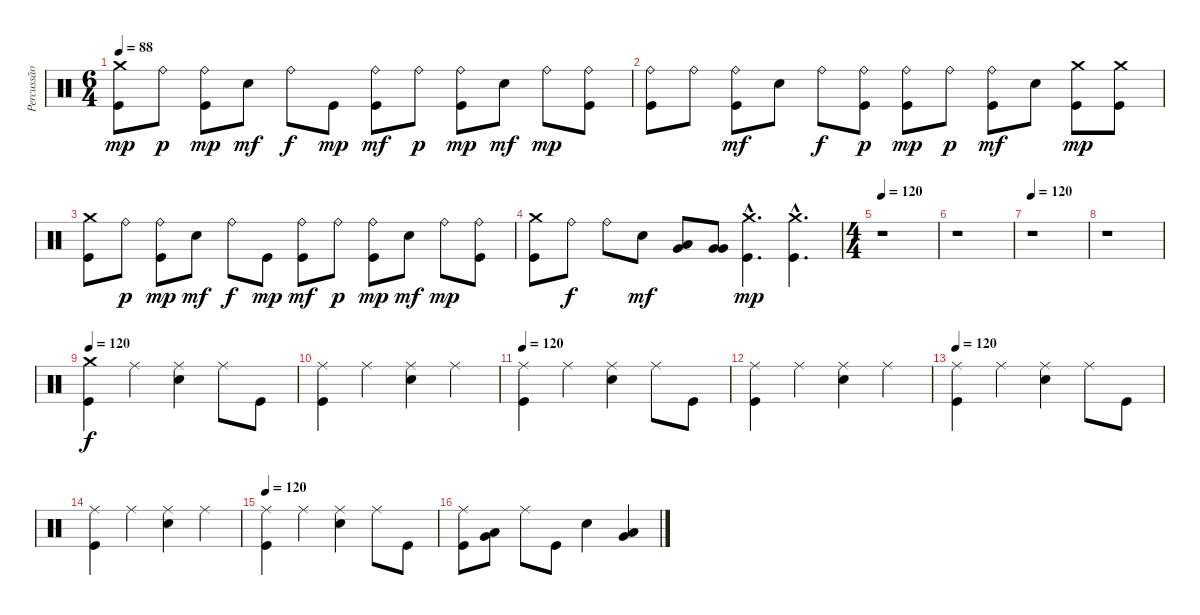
\track ("Percussão" "Percussão") {instrument percussion}
\staff {score}
\articulation defaults
\ts (6 4)
\tempo 88
\clef neutral
\ks c
("Kick (hit)" "Crash medium (hit)").8{dy mp} "Ride (bell)".8{dy p} ("Kick (hit)" "Ride (bell)").8{dy mp} "Electric Snare (hit)".8{dy mf} "Ride (bell)".8{dy f} "Kick (hit)".8{dy mp} ("Kick (hit)" "Ride (bell)").8{dy mf} "Ride (bell)".8{dy p} ("Kick (hit)" "Ride (bell)").8{dy mp} "Electric Snare (hit)".8{dy mf} "Ride (bell)".8{dy mp} ("Kick (hit)" "Ride (bell)").8 |
("Kick (hit)" "Ride (bell)").8 "Ride (bell)".8 ("Kick (hit)" "Ride (bell)").8{dy mf} "Electric Snare (hit)".8 "Ride (bell)".8{dy f} ("Kick (hit)" "Ride (bell)").8{dy p} ("Kick (hit)" "Ride (bell)").8{dy mp} "Ride (bell)".8{dy p} ("Kick (hit)" "Ride (bell)").8{dy mf} "Electric Snare (hit)".8 ("Kick (hit)" "Crash medium (hit)").8{dy mp} ("Kick (hit)" "Crash medium (hit)").8 |
("Kick (hit)" "Crash medium (hit)").8 "Ride (bell)".8{dy p} ("Kick (hit)" "Ride (bell)").8{dy mp} "Electric Snare (hit)".8{dy mf} "Ride (bell)".8{dy f} "Kick (hit)".8{dy mp} ("Kick (hit)" "Ride (bell)").8{dy mf} "Ride (bell)".8{dy p} ("Kick (hit)" "Ride (bell)").8{dy mp} "Electric Snare (hit)".8{dy mf} "Ride (bell)".8{dy mp} ("Kick (hit)" "Ride (bell)").8 |
("Kick (hit)" "Crash medium (hit)").8 "Ride (bell)".8{dy f} "Ride (bell)".8 "Electric Snare (hit)".8{dy mf} ("Very Low Tom (hit)" "Low Tom (hit)").8 ("Very Low Tom (hit)" "Very Low Tom (hit)").8 ("Crash medium (hit)"{hac} "Kick (hit)"{hac}).4{d dy mp} ("Crash medium (hit)"{hac} "Kick (hit)"{hac}).4{d} |
\ts (4 4)
\tempo 120
r.1 |
r.1 |
\tempo 120
r.1 |
r.1 |
\tempo 120
("Crash medium (hit)" "Kick (hit)").4{dy f} "Ride (middle)".4 ("Electric Snare (hit)" "Ride (middle)").4 "Ride (middle)".8 "Kick (hit)".8 |
("Kick (hit)" "Ride (middle)").4 "Ride (middle)".4 ("Electric Snare (hit)" "Ride (middle)").4 "Ride (middle)".4 |
\tempo 120
("Kick (hit)" "Ride (middle)").4 "Ride (middle)".4 ("Electric Snare (hit)" "Ride (middle)").4 "Ride (middle)".8 "Kick (hit)".8 |
("Kick (hit)" "Ride (middle)").4 "Ride (middle)".4 ("Electric Snare (hit)" "Ride (middle)").4 "Ride (middle)".4 |
\tempo 120
("Kick (hit)" "Ride (middle)").4 "Ride (middle)".4 ("Electric Snare (hit)" "Ride (middle)").4 "Ride (middle)".8 "Kick (hit)".8 |
("Kick (hit)" "Ride (middle)").4 "Ride (middle)".4 ("Electric Snare (hit)" "Ride (middle)").4 "Ride (middle)".4 |
\tempo 120
("Kick (hit)" "Ride (middle)").4 "Ride (middle)".4 ("Electric Snare (hit)" "Ride (middle)").4 "Ride (middle)".8 "Kick (hit)".8 |
("Kick (hit)" "Ride (middle)").8 ("Very Low Tom (hit)" "Low Tom (hit)").8 "Ride (middle)".8 "Kick (hit)".8 "Electric Snare (hit)".4 ("Very Low Tom (hit)" "Low Tom (hit)").4
